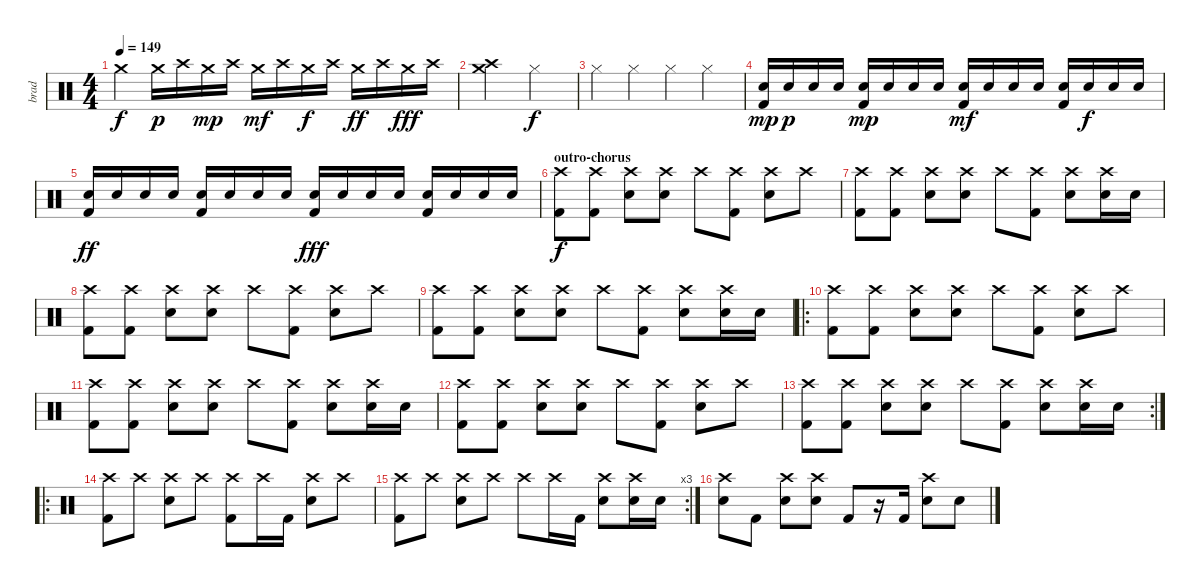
\track ("brad" "brad") {instrument percussion}
\staff {score}
\articulation defaults
\ts (4 4)
\tempo 149
\clef neutral
\ks c "Crash medium (hit)".4{dy f} "Crash medium (hit)".16{dy p} "Crash high (hit)".16 "Crash medium (hit)".16{dy mp} "Crash high (hit)".16 "Crash medium (hit)".16{dy mf} "Crash high (hit)".16 "Crash medium (hit)".16{dy f} "Crash high (hit)".16 "Crash medium (hit)".16{dy ff} "Crash high (hit)".16 "Crash medium (hit)".16{dy fff} "Crash high (hit)".16
|
("Crash high (hit)" "Crash medium (hit)").2 "Hi-Hat (closed)".2{dy f} |
"Hi-Hat (closed)".4 "Hi-Hat (closed)".4 "Hi-Hat (closed)".4 "Hi-Hat (closed)".4 |
("Electric Snare (hit)" "Kick (hit) 2").16{dy mp} "Electric Snare (hit)".16{dy p} "Electric Snare (hit)".16 "Electric Snare (hit)".16 ("Electric Snare (hit)" "Kick (hit) 2").16{dy mp} "Electric Snare (hit)".16 "Electric Snare (hit)".16 "Electric Snare (hit)".16 ("Electric Snare (hit)" "Kick (hit) 2").16{dy mf} "Electric Snare (hit)".16 "Electric Snare (hit)".16 "Electric Snare (hit)".16 ("Electric Snare (hit)" "Kick (hit) 2").16 "Electric Snare (hit)".16{dy f} "Electric Snare (hit)".16 "Electric Snare (hit)".16 |
("Electric Snare (hit)" "Kick (hit) 2").16{dy ff} "Electric Snare (hit)".16 "Electric Snare (hit)".16 "Electric Snare (hit)".16 ("Electric Snare (hit)" "Kick (hit) 2").16 "Electric Snare (hit)".16 "Electric Snare (hit)".16 "Electric Snare (hit)".16 ("Electric Snare (hit)" "Kick (hit) 2").16{dy fff} "Electric Snare (hit)".16 "Electric Snare (hit)".16 "Electric Snare (hit)".16 ("Electric Snare (hit)" "Kick (hit) 2").16 "Electric Snare (hit)".16 "Electric Snare (hit)".16 "Electric Snare (hit)".16 |
\section ("" "outro-chorus")
("Crash high (hit)" "Kick (hit) 2").8{dy f} ("Crash high (hit)" "Kick (hit) 2").8 ("Crash high (hit)" "Electric Snare (hit)").8 ("Crash high (hit)" "Electric Snare (hit)").8 "Crash high (hit)".8 ("Crash high (hit)" "Kick (hit) 2").8 ("Crash high (hit)" "Electric Snare (hit)").8 "Crash high (hit)".8 |
("Crash high (hit)" "Kick (hit) 2").8 ("Crash high (hit)" "Kick (hit) 2").8 ("Crash high (hit)" "Electric Snare (hit)").8 ("Crash high (hit)" "Electric Snare (hit)").8 "Crash high (hit)".8 ("Crash high (hit)" "Kick (hit) 2").8 ("Crash high (hit)" "Electric Snare (hit)").8 ("Crash high (hit)" "Electric Snare (hit)").16 "Electric Snare (hit)".16 |
("Crash high (hit)" "Kick (hit) 2").8 ("Crash high (hit)" "Kick (hit) 2").8 ("Crash high (hit)" "Electric Snare (hit)").8 ("Crash high (hit)" "Electric Snare (hit)").8 "Crash high (hit)".8 ("Crash high (hit)" "Kick (hit) 2").8 ("Crash high (hit)" "Electric Snare (hit)").8 "Crash high (hit)".8 |
("Crash high (hit)" "Kick (hit) 2").8 ("Crash high (hit)" "Kick (hit) 2").8 ("Crash high (hit)" "Electric Snare (hit)").8 ("Crash high (hit)" "Electric Snare (hit)").8 "Crash high (hit)".8 ("Crash high (hit)" "Kick (hit) 2").8 ("Crash high (hit)" "Electric Snare (hit)").8 ("Crash high (hit)" "Electric Snare (hit)").16 "Electric Snare (hit)".16 |
\ro
("Crash high (hit)" "Kick (hit) 2").8 ("Crash high (hit)" "Kick (hit) 2").8 ("Crash high (hit)" "Electric Snare (hit)").8 ("Crash high (hit)" "Electric Snare (hit)").8 "Crash high (hit)".8 ("Crash high (hit)" "Kick (hit) 2").8 ("Crash high (hit)" "Electric Snare (hit)").8 "Crash high (hit)".8 |
("Crash high (hit)" "Kick (hit) 2").8 ("Crash high (hit)" "Kick (hit) 2").8 ("Crash high (hit)" "Electric Snare (hit)").8 ("Crash high (hit)" "Electric Snare (hit)").8 "Crash high (hit)".8 ("Crash high (hit)" "Kick (hit) 2").8 ("Crash high (hit)" "Electric Snare (hit)").8 ("Crash high (hit)" "Electric Snare (hit)").16 "Electric Snare (hit)".16 |
("Crash high (hit)" "Kick (hit) 2").8 ("Crash high (hit)" "Kick (hit) 2").8 ("Crash high (hit)" "Electric Snare (hit)").8 ("Crash high (hit)" "Electric Snare (hit)").8 "Crash high (hit)".8 ("Crash high (hit)" "Kick (hit) 2").8 ("Crash high (hit)" "Electric Snare (hit)").8 "Crash high (hit)".8 |
\rc 2
("Crash high (hit)" "Kick (hit) 2").8 ("Crash high (hit)" "Kick (hit) 2").8 ("Crash high (hit)" "Electric Snare (hit)").8 ("Crash high (hit)" "Electric Snare (hit)").8 "Crash high (hit)".8 ("Crash high (hit)" "Kick (hit) 2").8 ("Crash high (hit)" "Electric Snare (hit)").8 ("Crash high (hit)" "Electric Snare (hit)").16 "Electric Snare (hit)".16 |
\ro
("Crash high (hit)" "Kick (hit) 2").8 "Crash high (hit)".8 ("Crash high (hit)" "Electric Snare (hit)").8 "Crash high (hit)".8 ("Crash high (hit)" "Kick (hit) 2").8 "Crash high (hit)".16 "Kick (hit) 2".16 ("Crash high (hit)" "Electric Snare (hit)").8 "Crash high (hit)".8 |
\rc 3
("Crash high (hit)" "Kick (hit) 2").8 "Crash high (hit)".8 ("Crash high (hit)" "Electric Snare (hit)").8 "Crash high (hit)".8 "Crash high (hit)".8 "Crash high (hit)".16 "Kick (hit) 2".16 ("Crash high (hit)" "Electric Snare (hit)").8 ("Crash high (hit)" "Electric Snare (hit)").16 "Electric Snare (hit)".16 |
("Crash high (hit)" "Electric Snare (hit)").8 "Kick (hit) 2".8 ("Crash high (hit)" "Electric Snare (hit)").8 ("Crash high (hit)" "Electric Snare (hit)").8 "Kick (hit) 2".8 r.16 "Kick (hit) 2".16 ("Crash high (hit)" "Electric Snare (hit)").8 "Electric Snare (hit)".8
